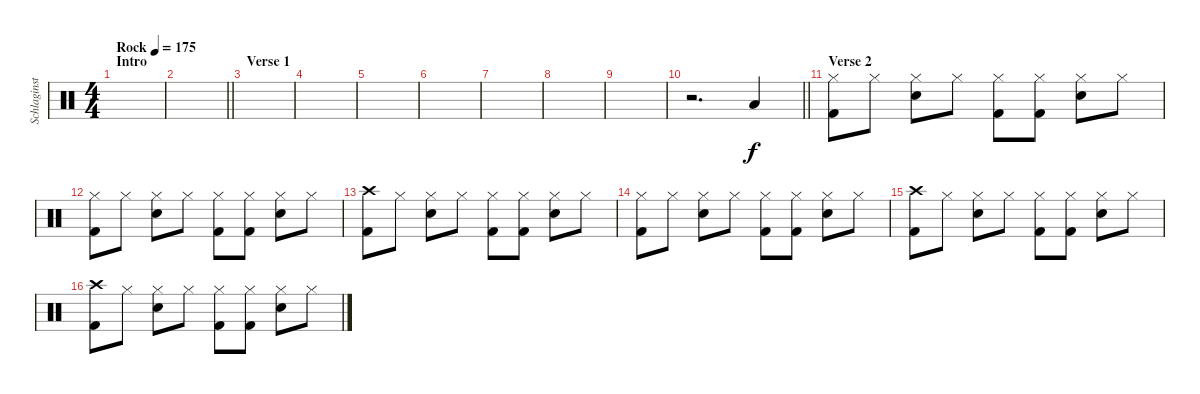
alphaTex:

\track ("Schlaginstrumente - Auswahl" "Schlaginst") {instrument percussion}
\staff {score}
\articulation defaults
\ts (4 4)
\section ("" "Intro")
\tempo (175 "Rock")
\clef neutral
\ks c
|
\barLineRight lightlight
|
\section ("" "Verse 1")
|
|
|
|
|
|
|
\barLineRight lightlight
r.2{d} "Low Tom (hit)".4 |
\section ("" "Verse 2")
("Hi-Hat (closed)" "Kick (hit) 2").8 "Hi-Hat (closed)".8 ("Hi-Hat (closed)" "Snare (hit) 2").8 "Hi-Hat (closed)".8 ("Hi-Hat (closed)" "Kick (hit) 2").8 ("Hi-Hat (closed)" "Kick (hit) 2").8 ("Hi-Hat (closed)" "Snare (hit) 2").8 "Hi-Hat (closed)".8 |
("Hi-Hat (closed)" "Kick (hit) 2").8 "Hi-Hat (closed)".8 ("Hi-Hat (closed)" "Snare (hit) 2").8 "Hi-Hat (closed)".8 ("Hi-Hat (closed)" "Kick (hit) 2").8 ("Hi-Hat (closed)" "Kick (hit) 2").8 ("Hi-Hat (closed)" "Snare (hit) 2").8 "Hi-Hat (closed)".8 |
("Crash high (hit)" "Kick (hit) 2").8 "Hi-Hat (closed)".8 ("Hi-Hat (closed)" "Snare (hit) 2").8 "Hi-Hat (closed)".8 ("Hi-Hat (closed)" "Kick (hit) 2").8 ("Hi-Hat (closed)" "Kick (hit) 2").8 ("Hi-Hat (closed)" "Snare (hit) 2").8 "Hi-Hat (closed)".8 |
("Hi-Hat (closed)" "Kick (hit) 2").8 "Hi-Hat (closed)".8 ("Hi-Hat (closed)" "Snare (hit) 2").8 "Hi-Hat (closed)".8 ("Hi-Hat (closed)" "Kick (hit) 2").8 ("Hi-Hat (closed)" "Kick (hit) 2").8 ("Hi-Hat (closed)" "Snare (hit) 2").8 "Hi-Hat (closed)".8 |
("Crash high (hit)" "Kick (hit) 2").8 "Hi-Hat (closed)".8 ("Hi-Hat (closed)" "Snare (hit) 2").8 "Hi-Hat (closed)".8 ("Hi-Hat (closed)" "Kick (hit) 2").8 ("Hi-Hat (closed)" "Kick (hit) 2").8 ("Hi-Hat (closed)" "Snare (hit) 2").8 "Hi-Hat (closed)".8 |
("Crash high (hit)" "Kick (hit) 2").8 "Hi-Hat (closed)".8 ("Hi-Hat (closed)" "Snare (hit) 2").8 "Hi-Hat (closed)".8 ("Hi-Hat (closed)" "Kick (hit) 2").8 ("Hi-Hat (closed)" "Kick (hit) 2").8 ("Hi-Hat (closed)" "Snare (hit) 2").8 "Hi-Hat (closed)".8
